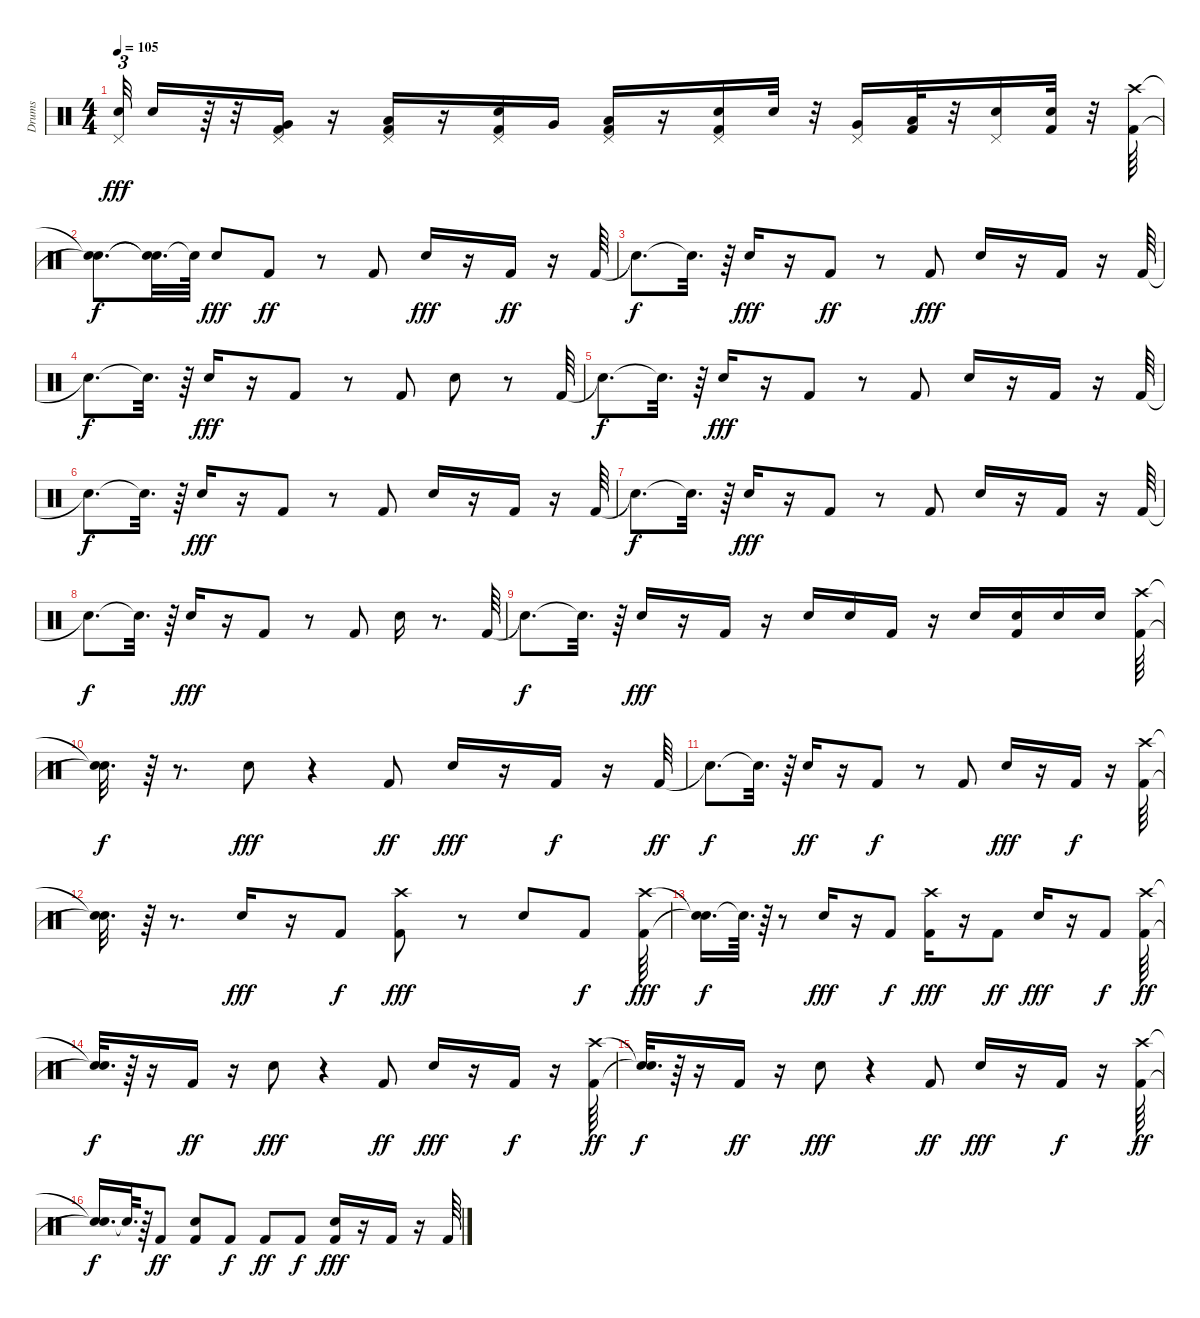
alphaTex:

\track ("Drums" "Drums") {instrument percussion}
\staff {score}
\articulation defaults
\ts (4 4)
\tempo 105
\clef neutral
\ks c
("Pedal Hi-Hat (hit)" "Snare (hit) 2").32{tu (3 2) dy fff} "Snare (hit) 2".16 r.64 r.32 ("Very Low Tom (hit)" "Kick (hit) 2" "Pedal Hi-Hat (hit)").16 r.16 ("Low Floor Tom (hit)" "Kick (hit) 2" "Pedal Hi-Hat (hit)").16 r.16 ("Kick (hit) 2" "Pedal Hi-Hat (hit)" "Snare (hit) 2").16 "Very Low Tom (hit)".16 ("Pedal Hi-Hat (hit)" "Low Floor Tom (hit)" "Kick (hit) 2").16 r.16 ("Kick (hit) 2" "Pedal Hi-Hat (hit)" "Snare (hit) 2").16 "Snare (hit) 2".32 r.32 ("Pedal Hi-Hat (hit)" "Very Low Tom (hit)").16 ("Low Floor Tom (hit)" "Kick (hit) 2").32 r.32 ("Pedal Hi-Hat (hit)" "Snare (hit) 2").16 ("Kick (hit) 2" "Snare (hit) 2").32 r.32 ("Crash high (hit)" "Kick (hit) 2").64 |
("Snare (hit)"{t} "Snare (hit)"{t}).8{d dy f} ("Snare (hit)"{t} "Snare (hit)"{t}).32{d} "Snare (hit)"{t}.64 "Snare (hit) 2".8{dy fff} "Kick (hit) 2".8{dy ff} r.8 "Kick (hit) 2".8 "Snare (hit) 2".16{dy fff} r.16 "Kick (hit) 2".16{dy ff} r.16 "Kick (hit) 2".64 |
"Snare (hit)"{t}.8{d dy f} "Snare (hit)"{t}.32{d} r.64 "Snare (hit) 2".16{dy fff} r.16 "Kick (hit) 2".8{dy ff} r.8 "Kick (hit) 2".8{dy fff} "Snare (hit) 2".16 r.16 "Kick (hit) 2".16 r.16 "Kick (hit) 2".64 |
"Snare (hit)"{t}.8{d dy f} "Snare (hit)"{t}.32{d} r.64 "Snare (hit) 2".16{dy fff} r.16 "Kick (hit) 2".8 r.8 "Kick (hit) 2".8 "Snare (hit) 2".8 r.8 "Kick (hit) 2".64 |
"Snare (hit)"{t}.8{d dy f} "Snare (hit)"{t}.32{d} r.64 "Snare (hit) 2".16{dy fff} r.16 "Kick (hit) 2".8 r.8 "Kick (hit) 2".8 "Snare (hit) 2".16 r.16 "Kick (hit) 2".16 r.16 "Kick (hit) 2".64 |
"Snare (hit)"{t}.8{d dy f} "Snare (hit)"{t}.32{d} r.64 "Snare (hit) 2".16{dy fff} r.16 "Kick (hit) 2".8 r.8 "Kick (hit) 2".8 "Snare (hit) 2".16 r.16 "Kick (hit) 2".16 r.16 "Kick (hit) 2".64 |
"Snare (hit)"{t}.8{d dy f} "Snare (hit)"{t}.32{d} r.64 "Snare (hit) 2".16{dy fff} r.16 "Kick (hit) 2".8 r.8 "Kick (hit) 2".8 "Snare (hit) 2".16 r.16 "Kick (hit) 2".16 r.16 "Kick (hit) 2".64 |
"Snare (hit)"{t}.8{d dy f} "Snare (hit)"{t}.32{d} r.64 "Snare (hit) 2".16{dy fff} r.16 "Kick (hit) 2".8 r.8 "Kick (hit) 2".8 "Snare (hit) 2".16 r.8{d} "Kick (hit) 2".64 |
"Snare (hit)"{t}.8{d dy f} "Snare (hit)"{t}.32{d} r.64 "Snare (hit) 2".16{dy fff} r.16 "Kick (hit) 2".16 r.16 "Snare (hit) 2".16 "Snare (hit) 2".16 "Kick (hit) 2".16 r.16 "Snare (hit) 2".16 ("Kick (hit) 2" "Snare (hit) 2").16 "Snare (hit) 2".16 "Snare (hit) 2".16 ("Kick (hit) 2" "Crash high (hit)").64 |
("Snare (hit)"{t} "Snare (hit)"{t}).32{d dy f} r.64 r.8{d} "Snare (hit) 2".8{dy fff} r.4 "Kick (hit) 2".8{dy ff} "Snare (hit) 2".16{dy fff} r.16 "Kick (hit) 2".16{dy f} r.16 "Kick (hit) 2".64{dy ff} |
"Snare (hit)"{t}.8{d dy f} "Snare (hit)"{t}.32{d} r.64 "Snare (hit) 2".16{dy ff} r.16 "Kick (hit) 2".8{dy f} r.8 "Kick (hit) 2".8 "Snare (hit) 2".16{dy fff} r.16 "Kick (hit) 2".16{dy f} r.16 ("Crash high (hit)" "Kick (hit) 2").64 |
("Snare (hit)"{t} "Snare (hit)"{t}).32{d} r.64 r.8{d} "Snare (hit) 2".16{dy fff} r.16 "Kick (hit) 2".8{dy f} ("Kick (hit) 2" "Crash high (hit)").8{dy fff} r.8 "Snare (hit) 2".8 "Kick (hit) 2".8{dy f} ("Kick (hit) 2" "Crash high (hit)").64{dy fff} |
("Snare (hit)"{t} "Snare (hit)"{t}).16{d dy f} "Snare (hit)"{t}.64{d} r.64 r.8 "Snare (hit) 2".16{dy fff} r.16 "Kick (hit) 2".8{dy f} ("Kick (hit) 2" "Crash high (hit)").16{dy fff} r.16 "Kick (hit) 2".8{dy ff} "Snare (hit) 2".16{dy fff} r.16 "Kick (hit) 2".8{dy f} ("Crash high (hit)" "Kick (hit) 2").64{dy ff} |
("Snare (hit)"{t} "Snare (hit)"{t}).32{d dy f} r.64 r.16 "Kick (hit) 2".16{dy ff} r.16 "Snare (hit) 2".8{dy fff} r.4 "Kick (hit) 2".8{dy ff} "Snare (hit) 2".16{dy fff} r.16 "Kick (hit) 2".16{dy f} r.16 ("Crash high (hit)" "Kick (hit) 2").64{dy ff} |
("Snare (hit)"{t} "Snare (hit)"{t}).32{d dy f} r.64 r.16 "Kick (hit) 2".16{dy ff} r.16 "Snare (hit) 2".8{dy fff} r.4 "Kick (hit) 2".8{dy ff} "Snare (hit) 2".16{dy fff} r.16 "Kick (hit) 2".16{dy f} r.16 ("Kick (hit) 2" "Crash high (hit)").64{dy ff} |
("Snare (hit)"{t} "Snare (hit)"{t}).16{d dy f} "Snare (hit)"{t}.64{d} r.64 "Kick (hit) 2".8{dy ff} ("Kick (hit) 2" "Snare (hit) 2").8 "Kick (hit) 2".8{dy f} "Kick (hit) 2".8{dy ff} "Kick (hit) 2".8{dy f} ("Kick (hit) 2" "Snare (hit) 2").16{dy fff} r.16 "Kick (hit) 2".16 r.16 "Kick (hit) 2".64
